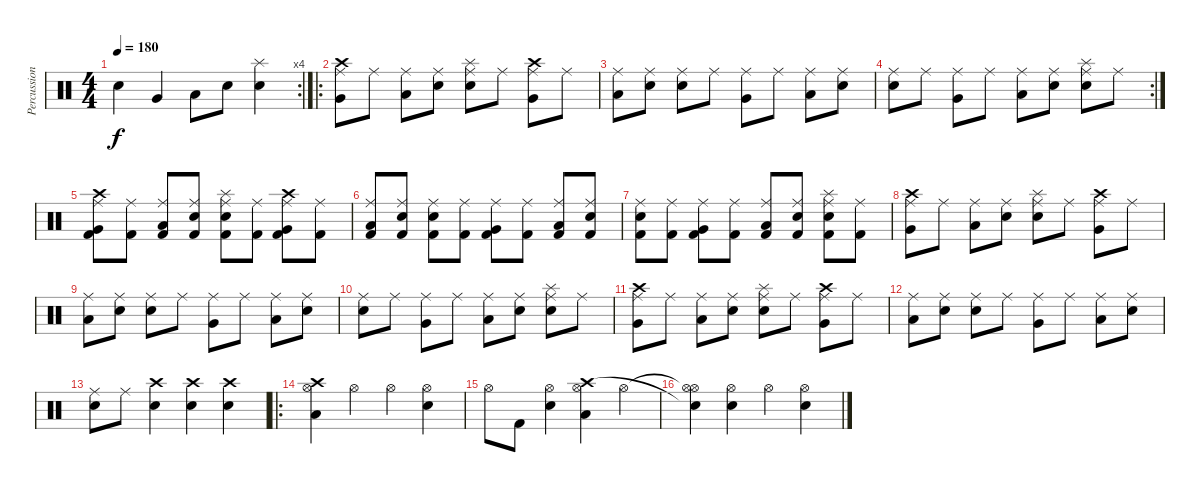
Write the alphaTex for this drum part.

\track ("Percussions" "Percussion") {instrument percussion}
\staff {score}
\articulation defaults
\rc 4
\ts (4 4)
\tempo 180
\clef neutral
\ks c "Snare (hit) 2".4{dy f} "Very Low Tom (hit)".4 "Low Tom (hit)".8 "Electric Snare (hit)".8
("Snare (hit) 2" "Splash (hit)").4 |
\ro
("Very Low Tom (hit)" "Crash high (hit)" "Ride (middle)").8 "Ride (middle)".8 ("Low Tom (hit)" "Ride (middle)").8 ("Electric Snare (hit)" "Ride (middle)").8 ("Snare (hit) 2" "Splash (hit)" "Ride (middle)").8 "Ride (middle)".8 ("Very Low Tom (hit)" "Crash high (hit)" "Ride (middle)").8 "Ride (middle)".8 |
("Low Tom (hit)" "Ride (middle)").8 ("Electric Snare (hit)" "Ride (middle)").8 ("Snare (hit) 2" "Ride (middle)").8 "Ride (middle)".8 ("Very Low Tom (hit)" "Ride (middle)").8 "Ride (middle)".8 ("Low Tom (hit)" "Ride (middle)").8 ("Electric Snare (hit)" "Ride (middle)").8 |
\rc 2
("Snare (hit) 2" "Ride (middle)").8 "Ride (middle)".8 ("Very Low Tom (hit)" "Ride (middle)").8 "Ride (middle)".8 ("Low Tom (hit)" "Ride (middle)").8 ("Electric Snare (hit)" "Ride (middle)").8 ("Snare (hit) 2" "Splash (hit)" "Ride (middle)").8 "Ride (middle)".8 |
("Very Low Tom (hit)" "Crash high (hit)" "Kick (hit) 2" "Ride (middle)").8 ("Kick (hit) 2" "Ride (middle)").8 ("Low Tom (hit)" "Kick (hit) 2" "Ride (middle)").8 ("Electric Snare (hit)" "Kick (hit) 2" "Ride (middle)").8 ("Snare (hit) 2" "Splash (hit)" "Kick (hit) 2" "Ride (middle)").8 ("Kick (hit) 2" "Ride (middle)").8 ("Very Low Tom (hit)" "Crash high (hit)" "Kick (hit) 2" "Ride (middle)").8 ("Kick (hit) 2" "Ride (middle)").8 |
("Low Tom (hit)" "Kick (hit) 2" "Ride (middle)").8 ("Electric Snare (hit)" "Kick (hit) 2" "Ride (middle)").8 ("Snare (hit) 2" "Kick (hit) 2" "Ride (middle)").8 ("Kick (hit) 2" "Ride (middle)").8 ("Very Low Tom (hit)" "Kick (hit) 2" "Ride (middle)").8 ("Kick (hit) 2" "Ride (middle)").8 ("Low Tom (hit)" "Kick (hit) 2" "Ride (middle)").8 ("Electric Snare (hit)" "Kick (hit) 2" "Ride (middle)").8 |
("Snare (hit) 2" "Kick (hit) 2" "Ride (middle)").8 ("Kick (hit) 2" "Ride (middle)").8 ("Very Low Tom (hit)" "Kick (hit) 2" "Ride (middle)").8 ("Kick (hit) 2" "Ride (middle)").8 ("Low Tom (hit)" "Kick (hit) 2" "Ride (middle)").8 ("Electric Snare (hit)" "Kick (hit) 2" "Ride (middle)").8 ("Snare (hit) 2" "Splash (hit)" "Kick (hit) 2" "Ride (middle)").8 ("Kick (hit) 2" "Ride (middle)").8 |
("Very Low Tom (hit)" "Crash high (hit)" "Ride (middle)").8 "Ride (middle)".8 ("Low Tom (hit)" "Ride (middle)").8 ("Electric Snare (hit)" "Ride (middle)").8 ("Snare (hit) 2" "Splash (hit)" "Ride (middle)").8 "Ride (middle)".8 ("Very Low Tom (hit)" "Crash high (hit)" "Ride (middle)").8 "Ride (middle)".8 |
("Low Tom (hit)" "Ride (middle)").8 ("Electric Snare (hit)" "Ride (middle)").8 ("Snare (hit) 2" "Ride (middle)").8 "Ride (middle)".8 ("Very Low Tom (hit)" "Ride (middle)").8 "Ride (middle)".8 ("Low Tom (hit)" "Ride (middle)").8 ("Electric Snare (hit)" "Ride (middle)").8 |
("Snare (hit) 2" "Ride (middle)").8 "Ride (middle)".8 ("Very Low Tom (hit)" "Ride (middle)").8 "Ride (middle)".8 ("Low Tom (hit)" "Ride (middle)").8 ("Electric Snare (hit)" "Ride (middle)").8 ("Snare (hit) 2" "Splash (hit)" "Ride (middle)").8 "Ride (middle)".8 |
("Very Low Tom (hit)" "Crash high (hit)" "Ride (middle)").8 "Ride (middle)".8 ("Low Tom (hit)" "Ride (middle)").8 ("Electric Snare (hit)" "Ride (middle)").8 ("Snare (hit) 2" "Splash (hit)" "Ride (middle)").8 "Ride (middle)".8 ("Very Low Tom (hit)" "Crash high (hit)" "Ride (middle)").8 "Ride (middle)".8 |
("Low Tom (hit)" "Ride (middle)").8 ("Electric Snare (hit)" "Ride (middle)").8 ("Snare (hit) 2" "Ride (middle)").8 "Ride (middle)".8 ("Very Low Tom (hit)" "Ride (middle)").8 "Ride (middle)".8 ("Low Tom (hit)" "Ride (middle)").8 ("Electric Snare (hit)" "Ride (middle)").8 |
("Snare (hit) 2" "Ride (middle)").8 "Ride (middle)".8 ("Snare (hit) 2" "Crash high (hit)").4 ("Snare (hit) 2" "Crash high (hit)").4 ("Snare (hit) 2" "Crash high (hit)").4 |
\ro
("Low Tom (hit)" "Crash high (hit)" "Hi-Hat (open)").4 "Hi-Hat (open)".4 "Hi-Hat (open)".4 ("Snare (hit) 2" "Hi-Hat (open)").4 |
"Hi-Hat (open)".8 "Kick (hit) 2".8 ("Snare (hit) 2" "Hi-Hat (open)").4 ("Low Tom (hit)" "Crash high (hit)" "Hi-Hat (open)").4 "Hi-Hat (open)".4 |
("Hi-Hat (open)"{t} "Snare (hit)"{t} "Hi-Hat (open)").4 ("Snare (hit) 2" "Hi-Hat (open)").4 "Hi-Hat (open)".4 ("Snare (hit) 2" "Hi-Hat (open)").4
